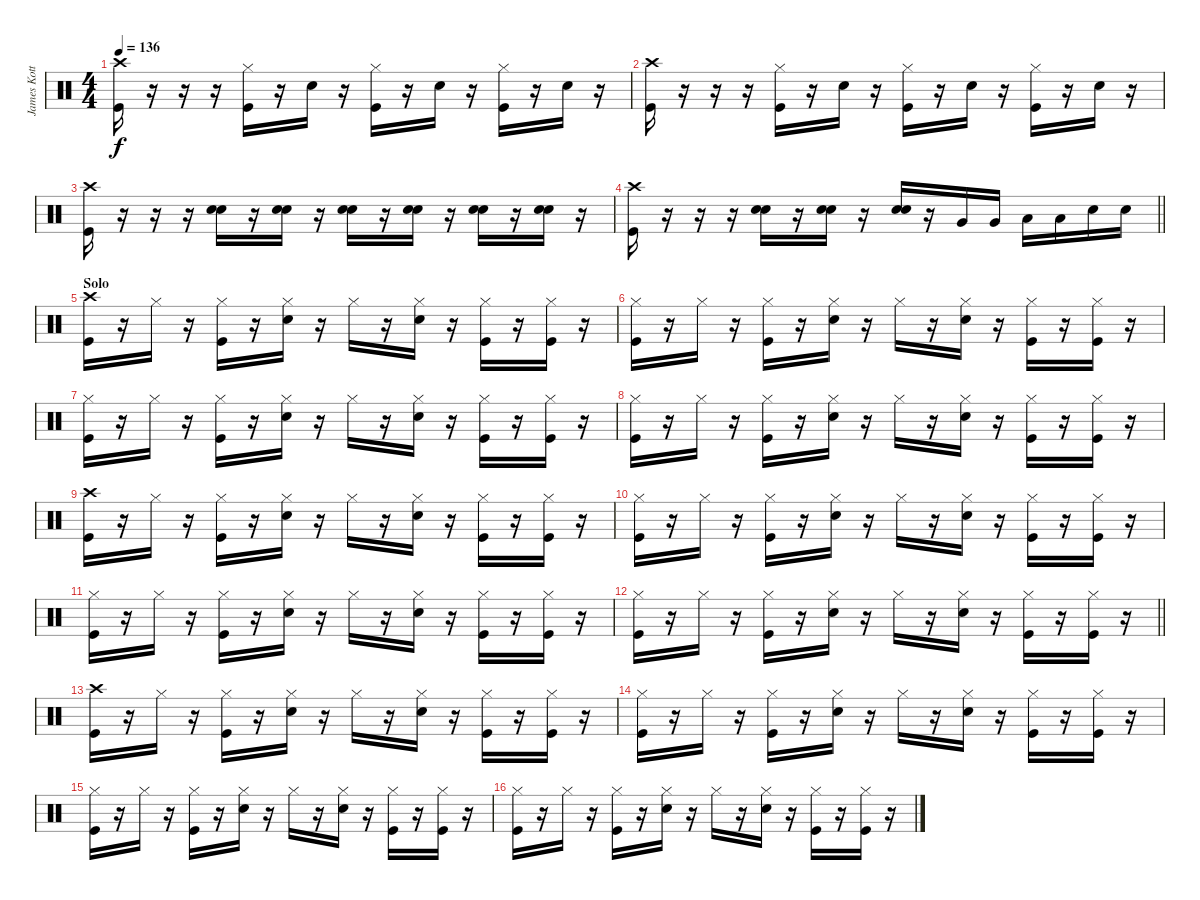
\track ("James Kottak" "James Kott") {instrument percussion}
\staff {score}
\articulation defaults
\ts (4 4)
\tempo 136
\clef neutral
\ks c
("Crash high (hit)" "Kick (hit)").16{dy f} r.16 r.16 r.16 ("Hi-Hat (closed)" "Kick (hit)").16 r.16 "Snare (hit) 2".16 r.16 ("Hi-Hat (closed)" "Kick (hit)").16 r.16 "Snare (hit) 2".16 r.16 ("Hi-Hat (closed)" "Kick (hit)").16 r.16 "Snare (hit) 2".16 r.16 |
("Crash high (hit)" "Kick (hit)").16 r.16 r.16 r.16 ("Hi-Hat (closed)" "Kick (hit)").16 r.16 "Snare (hit) 2".16 r.16 ("Hi-Hat (closed)" "Kick (hit)").16 r.16 "Snare (hit) 2".16 r.16 ("Hi-Hat (closed)" "Kick (hit)").16 r.16 "Snare (hit) 2".16 r.16 |
("Crash high (hit)" "Kick (hit)").16 r.16 r.16 r.16 ("Snare (hit) 2" "Snare (hit) 2").16 r.16 ("Snare (hit) 2" "Snare (hit) 2").16 r.16 ("Snare (hit) 2" "Snare (hit) 2").16 r.16 ("Snare (hit) 2" "Snare (hit) 2").16 r.16 ("Snare (hit) 2" "Snare (hit) 2").16 r.16 ("Snare (hit) 2" "Snare (hit) 2").16 r.16 |
\barLineRight lightlight
("Crash high (hit)" "Kick (hit)").16 r.16 r.16 r.16 ("Snare (hit) 2" "Snare (hit) 2").16 r.16 ("Snare (hit) 2" "Snare (hit) 2").16 r.16 ("Snare (hit) 2" "Snare (hit) 2").16 r.16 "Very Low Tom (hit)".16 "Very Low Tom (hit)".16 "Low Floor Tom (hit)".16 "Low Floor Tom (hit)".16 "Snare (hit) 2".16 "Snare (hit) 2".16 |
\section ("" "Solo")
("Crash high (hit)" "Kick (hit)").16 r.16 "Hi-Hat (closed)".16 r.16 ("Hi-Hat (closed)" "Kick (hit)").16 r.16 ("Hi-Hat (closed)" "Snare (hit) 2").16 r.16 "Hi-Hat (closed)".16 r.16 ("Hi-Hat (closed)" "Snare (hit) 2").16 r.16 ("Hi-Hat (closed)" "Kick (hit)").16 r.16 ("Hi-Hat (closed)" "Kick (hit)").16 r.16 |
("Hi-Hat (closed)" "Kick (hit)").16 r.16 "Hi-Hat (closed)".16 r.16 ("Hi-Hat (closed)" "Kick (hit)").16 r.16 ("Hi-Hat (closed)" "Snare (hit) 2").16 r.16 "Hi-Hat (closed)".16 r.16 ("Hi-Hat (closed)" "Snare (hit) 2").16 r.16 ("Hi-Hat (closed)" "Kick (hit)").16 r.16 ("Hi-Hat (closed)" "Kick (hit)").16 r.16 |
("Hi-Hat (closed)" "Kick (hit)").16 r.16 "Hi-Hat (closed)".16 r.16 ("Hi-Hat (closed)" "Kick (hit)").16 r.16 ("Hi-Hat (closed)" "Snare (hit) 2").16 r.16 "Hi-Hat (closed)".16 r.16 ("Hi-Hat (closed)" "Snare (hit) 2").16 r.16 ("Hi-Hat (closed)" "Kick (hit)").16 r.16 ("Hi-Hat (closed)" "Kick (hit)").16 r.16 |
("Hi-Hat (closed)" "Kick (hit)").16 r.16 "Hi-Hat (closed)".16 r.16 ("Hi-Hat (closed)" "Kick (hit)").16 r.16 ("Hi-Hat (closed)" "Snare (hit) 2").16 r.16 "Hi-Hat (closed)".16 r.16 ("Hi-Hat (closed)" "Snare (hit) 2").16 r.16 ("Hi-Hat (closed)" "Kick (hit)").16 r.16 ("Hi-Hat (closed)" "Kick (hit)").16 r.16 |
("Crash high (hit)" "Kick (hit)").16 r.16 "Hi-Hat (closed)".16 r.16 ("Hi-Hat (closed)" "Kick (hit)").16 r.16 ("Hi-Hat (closed)" "Snare (hit) 2").16 r.16 "Hi-Hat (closed)".16 r.16 ("Hi-Hat (closed)" "Snare (hit) 2").16 r.16 ("Hi-Hat (closed)" "Kick (hit)").16 r.16 ("Hi-Hat (closed)" "Kick (hit)").16 r.16 |
("Hi-Hat (closed)" "Kick (hit)").16 r.16 "Hi-Hat (closed)".16 r.16 ("Hi-Hat (closed)" "Kick (hit)").16 r.16 ("Hi-Hat (closed)" "Snare (hit) 2").16 r.16 "Hi-Hat (closed)".16 r.16 ("Hi-Hat (closed)" "Snare (hit) 2").16 r.16 ("Hi-Hat (closed)" "Kick (hit)").16 r.16 ("Hi-Hat (closed)" "Kick (hit)").16 r.16 |
("Hi-Hat (closed)" "Kick (hit)").16 r.16 "Hi-Hat (closed)".16 r.16 ("Hi-Hat (closed)" "Kick (hit)").16 r.16 ("Hi-Hat (closed)" "Snare (hit) 2").16 r.16 "Hi-Hat (closed)".16 r.16 ("Hi-Hat (closed)" "Snare (hit) 2").16 r.16 ("Hi-Hat (closed)" "Kick (hit)").16 r.16 ("Hi-Hat (closed)" "Kick (hit)").16 r.16 |
\barLineRight lightlight
("Hi-Hat (closed)" "Kick (hit)").16 r.16 "Hi-Hat (closed)".16 r.16 ("Hi-Hat (closed)" "Kick (hit)").16 r.16 ("Hi-Hat (closed)" "Snare (hit) 2").16 r.16 "Hi-Hat (closed)".16 r.16 ("Hi-Hat (closed)" "Snare (hit) 2").16 r.16 ("Hi-Hat (closed)" "Kick (hit)").16 r.16 ("Hi-Hat (closed)" "Kick (hit)").16 r.16 |
("Crash high (hit)" "Kick (hit)").16 r.16 "Hi-Hat (closed)".16 r.16 ("Hi-Hat (closed)" "Kick (hit)").16 r.16 ("Hi-Hat (closed)" "Snare (hit) 2").16 r.16 "Hi-Hat (closed)".16 r.16 ("Hi-Hat (closed)" "Snare (hit) 2").16 r.16 ("Hi-Hat (closed)" "Kick (hit)").16 r.16 ("Hi-Hat (closed)" "Kick (hit)").16 r.16 |
("Hi-Hat (closed)" "Kick (hit)").16 r.16 "Hi-Hat (closed)".16 r.16 ("Hi-Hat (closed)" "Kick (hit)").16 r.16 ("Hi-Hat (closed)" "Snare (hit) 2").16 r.16 "Hi-Hat (closed)".16 r.16 ("Hi-Hat (closed)" "Snare (hit) 2").16 r.16 ("Hi-Hat (closed)" "Kick (hit)").16 r.16 ("Hi-Hat (closed)" "Kick (hit)").16 r.16 |
("Hi-Hat (closed)" "Kick (hit)").16 r.16 "Hi-Hat (closed)".16 r.16 ("Hi-Hat (closed)" "Kick (hit)").16 r.16 ("Hi-Hat (closed)" "Snare (hit) 2").16 r.16 "Hi-Hat (closed)".16 r.16 ("Hi-Hat (closed)" "Snare (hit) 2").16 r.16 ("Hi-Hat (closed)" "Kick (hit)").16 r.16 ("Hi-Hat (closed)" "Kick (hit)").16 r.16 |
("Hi-Hat (closed)" "Kick (hit)").16 r.16 "Hi-Hat (closed)".16 r.16 ("Hi-Hat (closed)" "Kick (hit)").16 r.16 ("Hi-Hat (closed)" "Snare (hit) 2").16 r.16 "Hi-Hat (closed)".16 r.16 ("Hi-Hat (closed)" "Snare (hit) 2").16 r.16 ("Hi-Hat (closed)" "Kick (hit)").16 r.16 ("Hi-Hat (closed)" "Kick (hit)").16 r.16
